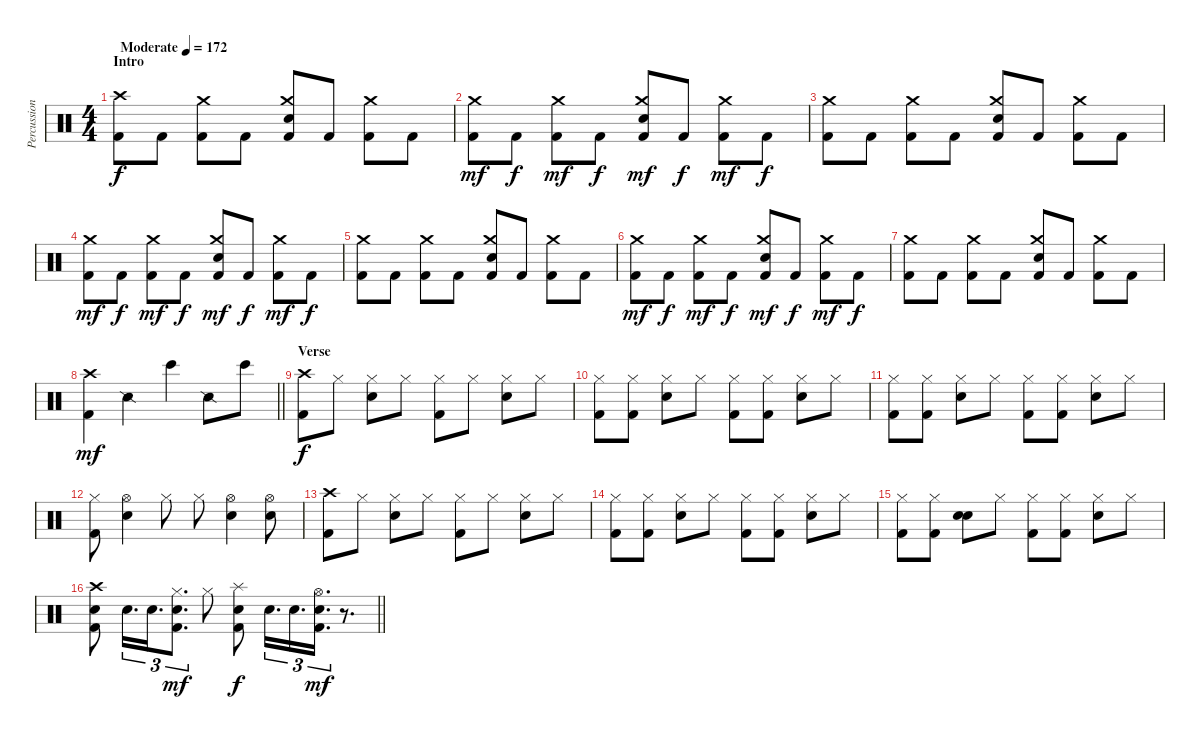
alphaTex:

\track ("Percussion" "Percussion") {instrument percussion}
\staff {score}
\articulation defaults
\ts (4 4)
\section ("" "Intro")
\tempo (172 "Moderate")
\clef neutral
\ks c
("Crash high (hit)" "Kick (hit) 2").8{dy f} "Kick (hit) 2".8 ("Crash medium (hit)" "Kick (hit) 2").8 "Kick (hit) 2".8 ("Crash medium (hit)" "Snare (hit) 2" "Kick (hit) 2").8 "Kick (hit) 2".8 ("Crash medium (hit)" "Kick (hit) 2").8 "Kick (hit) 2".8 |
("Crash medium (hit)" "Kick (hit) 2").8{dy mf} "Kick (hit) 2".8{dy f} ("Crash medium (hit)" "Kick (hit) 2").8{dy mf} "Kick (hit) 2".8{dy f} ("Crash medium (hit)" "Snare (hit) 2" "Kick (hit) 2").8{dy mf} "Kick (hit) 2".8{dy f} ("Crash medium (hit)" "Kick (hit) 2").8{dy mf} "Kick (hit) 2".8{dy f} |
("Crash medium (hit)" "Kick (hit) 2").8 "Kick (hit) 2".8 ("Crash medium (hit)" "Kick (hit) 2").8 "Kick (hit) 2".8 ("Crash medium (hit)" "Snare (hit) 2" "Kick (hit) 2").8 "Kick (hit) 2".8 ("Crash medium (hit)" "Kick (hit) 2").8 "Kick (hit) 2".8 |
("Crash medium (hit)" "Kick (hit) 2").8{dy mf} "Kick (hit) 2".8{dy f} ("Crash medium (hit)" "Kick (hit) 2").8{dy mf} "Kick (hit) 2".8{dy f} ("Crash medium (hit)" "Snare (hit) 2" "Kick (hit) 2").8{dy mf} "Kick (hit) 2".8{dy f} ("Crash medium (hit)" "Kick (hit) 2").8{dy mf} "Kick (hit) 2".8{dy f} |
("Crash medium (hit)" "Kick (hit) 2").8 "Kick (hit) 2".8 ("Crash medium (hit)" "Kick (hit) 2").8 "Kick (hit) 2".8 ("Crash medium (hit)" "Snare (hit) 2" "Kick (hit) 2").8 "Kick (hit) 2".8 ("Crash medium (hit)" "Kick (hit) 2").8 "Kick (hit) 2".8 |
("Crash medium (hit)" "Kick (hit) 2").8{dy mf} "Kick (hit) 2".8{dy f} ("Crash medium (hit)" "Kick (hit) 2").8{dy mf} "Kick (hit) 2".8{dy f} ("Crash medium (hit)" "Snare (hit) 2" "Kick (hit) 2").8{dy mf} "Kick (hit) 2".8{dy f} ("Crash medium (hit)" "Kick (hit) 2").8{dy mf} "Kick (hit) 2".8{dy f} |
("Crash medium (hit)" "Kick (hit) 2").8 "Kick (hit) 2".8 ("Crash medium (hit)" "Kick (hit) 2").8 "Kick (hit) 2".8 ("Crash medium (hit)" "Snare (hit) 2" "Kick (hit) 2").8 "Kick (hit) 2".8 ("Crash medium (hit)" "Kick (hit) 2").8 "Kick (hit) 2".8 |
\barLineRight lightlight
("Crash high (hit)" "Kick (hit) 2").4{dy mf} "Snare (side stick) 2".4 "Bongo High (hit)".4 "Snare (side stick) 2".8 "Bongo High (hit)".8 |
\section ("" "Verse")
("Crash high (hit)" "Kick (hit) 2").8{dy f} "Hi-Hat (closed)".8 ("Hi-Hat (closed)" "Snare (hit) 2").8 "Hi-Hat (closed)".8 ("Hi-Hat (closed)" "Kick (hit) 2").8 "Hi-Hat (closed)".8 ("Hi-Hat (closed)" "Snare (hit) 2").8 "Hi-Hat (closed)".8 |
("Hi-Hat (closed)" "Kick (hit) 2").8 ("Hi-Hat (closed)" "Kick (hit) 2").8 ("Hi-Hat (closed)" "Snare (hit) 2").8 "Hi-Hat (closed)".8 ("Hi-Hat (closed)" "Kick (hit) 2").8 ("Hi-Hat (closed)" "Kick (hit) 2").8 ("Hi-Hat (closed)" "Snare (hit) 2").8 "Hi-Hat (closed)".8 |
("Hi-Hat (closed)" "Kick (hit) 2").8 ("Hi-Hat (closed)" "Kick (hit) 2").8 ("Hi-Hat (closed)" "Snare (hit) 2").8 "Hi-Hat (closed)".8 ("Hi-Hat (closed)" "Kick (hit) 2").8 ("Hi-Hat (closed)" "Kick (hit) 2").8 ("Hi-Hat (closed)" "Snare (hit) 2").8 "Hi-Hat (closed)".8 |
("Hi-Hat (closed)" "Kick (hit) 2").8 ("Hi-Hat (open)" "Snare (hit) 2").4 "Hi-Hat (closed)".8 "Hi-Hat (closed)".8 ("Hi-Hat (open)" "Snare (hit) 2").4 ("Hi-Hat (open)" "Snare (hit) 2").8 |
("Crash high (hit)" "Kick (hit) 2").8 "Hi-Hat (closed)".8 ("Hi-Hat (closed)" "Snare (hit) 2").8 "Hi-Hat (closed)".8 ("Hi-Hat (closed)" "Kick (hit) 2").8 "Hi-Hat (closed)".8 ("Hi-Hat (closed)" "Snare (hit) 2").8 "Hi-Hat (closed)".8 |
("Hi-Hat (closed)" "Kick (hit) 2").8 ("Hi-Hat (closed)" "Kick (hit) 2").8 ("Hi-Hat (closed)" "Snare (hit) 2").8 "Hi-Hat (closed)".8 ("Hi-Hat (closed)" "Kick (hit) 2").8 ("Hi-Hat (closed)" "Kick (hit) 2").8 ("Hi-Hat (closed)" "Snare (hit) 2").8 "Hi-Hat (closed)".8 |
("Hi-Hat (closed)" "Kick (hit) 2").8 ("Hi-Hat (closed)" "Kick (hit) 2").8 ("Snare (hit)" "Snare (hit) 2").8 "Hi-Hat (closed)".8 ("Hi-Hat (closed)" "Kick (hit) 2").8 ("Hi-Hat (closed)" "Kick (hit) 2").8 ("Hi-Hat (closed)" "Snare (hit) 2").8 "Hi-Hat (closed)".8 |
\barLineRight lightlight
("Crash high (hit)" "Snare (hit) 2" "Kick (hit) 2").8 "Snare (hit) 2".16{d tu (3 2)} "Snare (hit) 2".16{d tu (3 2) beam merge} ("Hi-Hat (closed)" "Snare (hit) 2" "Kick (hit) 2").8{d tu (3 2) dy mf} "Hi-Hat (closed)".8 ("Splash (hit)" "Snare (hit) 2" "Kick (hit) 2").8{dy f} "Snare (hit) 2".16{d tu (3 2) beam merge} "Snare (hit) 2".16{d tu (3 2) beam merge} ("Hi-Hat (open)" "Snare (hit) 2" "Kick (hit) 2").16{d tu (3 2) dy mf} r.8{d}
